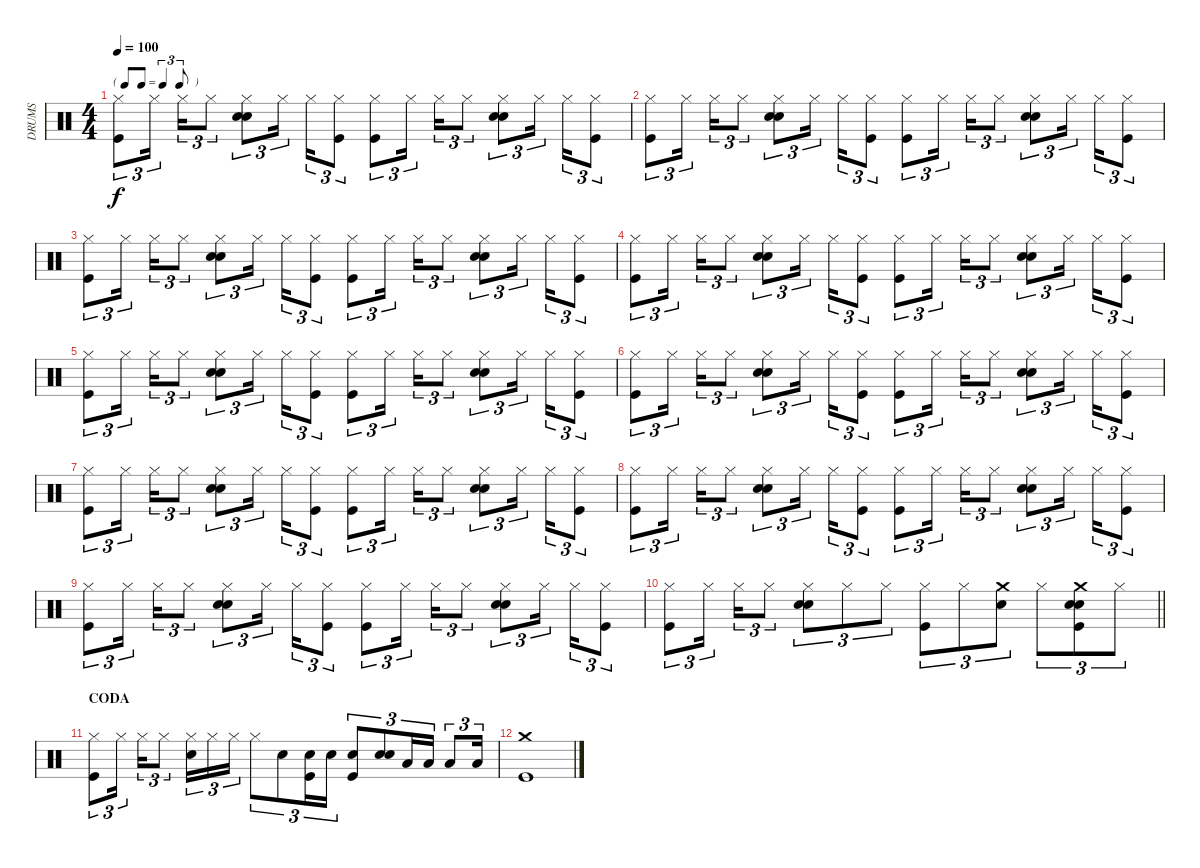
\track ("DRUMS" "DRUMS") {instrument percussion}
\staff {score}
\articulation defaults
\ts (4 4)
\tf triplet8th
\tempo 100
\clef neutral
\ks c
("Kick (hit)" "Hi-Hat (closed)").8{tu (3 2) dy f} "Hi-Hat (closed)".16{tu (3 2) beam splitsecondary} "Hi-Hat (closed)".16{tu (3 2)} "Hi-Hat (closed)".8{tu (3 2)} ("Hand Clap (hit)" "Electric Snare (hit)" "Hi-Hat (closed)").8{tu (3 2)} "Hi-Hat (closed)".16{tu (3 2) beam splitsecondary} "Hi-Hat (closed)".16{tu (3 2)} ("Kick (hit)" "Hi-Hat (closed)").8{tu (3 2)} ("Kick (hit)" "Hi-Hat (closed)").8{tu (3 2)} "Hi-Hat (closed)".16{tu (3 2) beam splitsecondary} "Hi-Hat (closed)".16{tu (3 2)} "Hi-Hat (closed)".8{tu (3 2)} ("Hand Clap (hit)" "Electric Snare (hit)" "Hi-Hat (closed)").8{tu (3 2)} "Hi-Hat (closed)".16{tu (3 2) beam splitsecondary} "Hi-Hat (closed)".16{tu (3 2)} ("Kick (hit)" "Hi-Hat (closed)").8{tu (3 2)} |
("Kick (hit)" "Hi-Hat (closed)").8{tu (3 2)} "Hi-Hat (closed)".16{tu (3 2) beam splitsecondary} "Hi-Hat (closed)".16{tu (3 2)} "Hi-Hat (closed)".8{tu (3 2)} ("Hand Clap (hit)" "Electric Snare (hit)" "Hi-Hat (closed)").8{tu (3 2)} "Hi-Hat (closed)".16{tu (3 2) beam splitsecondary} "Hi-Hat (closed)".16{tu (3 2)} ("Kick (hit)" "Hi-Hat (closed)").8{tu (3 2)} ("Kick (hit)" "Hi-Hat (closed)").8{tu (3 2)} "Hi-Hat (closed)".16{tu (3 2) beam splitsecondary} "Hi-Hat (closed)".16{tu (3 2)} "Hi-Hat (closed)".8{tu (3 2)} ("Hand Clap (hit)" "Electric Snare (hit)" "Hi-Hat (closed)").8{tu (3 2)} "Hi-Hat (closed)".16{tu (3 2) beam splitsecondary} "Hi-Hat (closed)".16{tu (3 2)} ("Kick (hit)" "Hi-Hat (closed)").8{tu (3 2)} |
("Kick (hit)" "Hi-Hat (closed)").8{tu (3 2)} "Hi-Hat (closed)".16{tu (3 2) beam splitsecondary} "Hi-Hat (closed)".16{tu (3 2)} "Hi-Hat (closed)".8{tu (3 2)} ("Hand Clap (hit)" "Electric Snare (hit)" "Hi-Hat (closed)").8{tu (3 2)} "Hi-Hat (closed)".16{tu (3 2) beam splitsecondary} "Hi-Hat (closed)".16{tu (3 2)} ("Kick (hit)" "Hi-Hat (closed)").8{tu (3 2)} ("Kick (hit)" "Hi-Hat (closed)").8{tu (3 2)} "Hi-Hat (closed)".16{tu (3 2) beam splitsecondary} "Hi-Hat (closed)".16{tu (3 2)} "Hi-Hat (closed)".8{tu (3 2)} ("Hand Clap (hit)" "Electric Snare (hit)" "Hi-Hat (closed)").8{tu (3 2)} "Hi-Hat (closed)".16{tu (3 2) beam splitsecondary} "Hi-Hat (closed)".16{tu (3 2)} ("Kick (hit)" "Hi-Hat (closed)").8{tu (3 2)} |
("Kick (hit)" "Hi-Hat (closed)").8{tu (3 2)} "Hi-Hat (closed)".16{tu (3 2) beam splitsecondary} "Hi-Hat (closed)".16{tu (3 2)} "Hi-Hat (closed)".8{tu (3 2)} ("Hand Clap (hit)" "Electric Snare (hit)" "Hi-Hat (closed)").8{tu (3 2)} "Hi-Hat (closed)".16{tu (3 2) beam splitsecondary} "Hi-Hat (closed)".16{tu (3 2)} ("Kick (hit)" "Hi-Hat (closed)").8{tu (3 2)} ("Kick (hit)" "Hi-Hat (closed)").8{tu (3 2)} "Hi-Hat (closed)".16{tu (3 2) beam splitsecondary} "Hi-Hat (closed)".16{tu (3 2)} "Hi-Hat (closed)".8{tu (3 2)} ("Hand Clap (hit)" "Electric Snare (hit)" "Hi-Hat (closed)").8{tu (3 2)} "Hi-Hat (closed)".16{tu (3 2) beam splitsecondary} "Hi-Hat (closed)".16{tu (3 2)} ("Kick (hit)" "Hi-Hat (closed)").8{tu (3 2)} |
("Kick (hit)" "Hi-Hat (closed)").8{tu (3 2)} "Hi-Hat (closed)".16{tu (3 2) beam splitsecondary} "Hi-Hat (closed)".16{tu (3 2)} "Hi-Hat (closed)".8{tu (3 2)} ("Hand Clap (hit)" "Electric Snare (hit)" "Hi-Hat (closed)").8{tu (3 2)} "Hi-Hat (closed)".16{tu (3 2) beam splitsecondary} "Hi-Hat (closed)".16{tu (3 2)} ("Kick (hit)" "Hi-Hat (closed)").8{tu (3 2)} ("Kick (hit)" "Hi-Hat (closed)").8{tu (3 2)} "Hi-Hat (closed)".16{tu (3 2) beam splitsecondary} "Hi-Hat (closed)".16{tu (3 2)} "Hi-Hat (closed)".8{tu (3 2)} ("Hand Clap (hit)" "Electric Snare (hit)" "Hi-Hat (closed)").8{tu (3 2)} "Hi-Hat (closed)".16{tu (3 2) beam splitsecondary} "Hi-Hat (closed)".16{tu (3 2)} ("Kick (hit)" "Hi-Hat (closed)").8{tu (3 2)} |
("Kick (hit)" "Hi-Hat (closed)").8{tu (3 2)} "Hi-Hat (closed)".16{tu (3 2) beam splitsecondary} "Hi-Hat (closed)".16{tu (3 2)} "Hi-Hat (closed)".8{tu (3 2)} ("Hand Clap (hit)" "Electric Snare (hit)" "Hi-Hat (closed)").8{tu (3 2)} "Hi-Hat (closed)".16{tu (3 2) beam splitsecondary} "Hi-Hat (closed)".16{tu (3 2)} ("Kick (hit)" "Hi-Hat (closed)").8{tu (3 2)} ("Kick (hit)" "Hi-Hat (closed)").8{tu (3 2)} "Hi-Hat (closed)".16{tu (3 2) beam splitsecondary} "Hi-Hat (closed)".16{tu (3 2)} "Hi-Hat (closed)".8{tu (3 2)} ("Hand Clap (hit)" "Electric Snare (hit)" "Hi-Hat (closed)").8{tu (3 2)} "Hi-Hat (closed)".16{tu (3 2) beam splitsecondary} "Hi-Hat (closed)".16{tu (3 2)} ("Kick (hit)" "Hi-Hat (closed)").8{tu (3 2)} |
("Kick (hit)" "Hi-Hat (closed)").8{tu (3 2)} "Hi-Hat (closed)".16{tu (3 2) beam splitsecondary} "Hi-Hat (closed)".16{tu (3 2)} "Hi-Hat (closed)".8{tu (3 2)} ("Hand Clap (hit)" "Electric Snare (hit)" "Hi-Hat (closed)").8{tu (3 2)} "Hi-Hat (closed)".16{tu (3 2) beam splitsecondary} "Hi-Hat (closed)".16{tu (3 2)} ("Kick (hit)" "Hi-Hat (closed)").8{tu (3 2)} ("Kick (hit)" "Hi-Hat (closed)").8{tu (3 2)} "Hi-Hat (closed)".16{tu (3 2) beam splitsecondary} "Hi-Hat (closed)".16{tu (3 2)} "Hi-Hat (closed)".8{tu (3 2)} ("Hand Clap (hit)" "Electric Snare (hit)" "Hi-Hat (closed)").8{tu (3 2)} "Hi-Hat (closed)".16{tu (3 2) beam splitsecondary} "Hi-Hat (closed)".16{tu (3 2)} ("Kick (hit)" "Hi-Hat (closed)").8{tu (3 2)} |
("Kick (hit)" "Hi-Hat (closed)").8{tu (3 2)} "Hi-Hat (closed)".16{tu (3 2) beam splitsecondary} "Hi-Hat (closed)".16{tu (3 2)} "Hi-Hat (closed)".8{tu (3 2)} ("Hand Clap (hit)" "Electric Snare (hit)" "Hi-Hat (closed)").8{tu (3 2)} "Hi-Hat (closed)".16{tu (3 2) beam splitsecondary} "Hi-Hat (closed)".16{tu (3 2)} ("Kick (hit)" "Hi-Hat (closed)").8{tu (3 2)} ("Kick (hit)" "Hi-Hat (closed)").8{tu (3 2)} "Hi-Hat (closed)".16{tu (3 2) beam splitsecondary} "Hi-Hat (closed)".16{tu (3 2)} "Hi-Hat (closed)".8{tu (3 2)} ("Hand Clap (hit)" "Electric Snare (hit)" "Hi-Hat (closed)").8{tu (3 2)} "Hi-Hat (closed)".16{tu (3 2) beam splitsecondary} "Hi-Hat (closed)".16{tu (3 2)} ("Kick (hit)" "Hi-Hat (closed)").8{tu (3 2)} |
("Kick (hit)" "Hi-Hat (closed)").8{tu (3 2)} "Hi-Hat (closed)".16{tu (3 2) beam splitsecondary} "Hi-Hat (closed)".16{tu (3 2)} "Hi-Hat (closed)".8{tu (3 2)} ("Hand Clap (hit)" "Electric Snare (hit)" "Hi-Hat (closed)").8{tu (3 2)} "Hi-Hat (closed)".16{tu (3 2) beam splitsecondary} "Hi-Hat (closed)".16{tu (3 2)} ("Kick (hit)" "Hi-Hat (closed)").8{tu (3 2)} ("Kick (hit)" "Hi-Hat (closed)").8{tu (3 2)} "Hi-Hat (closed)".16{tu (3 2) beam splitsecondary} "Hi-Hat (closed)".16{tu (3 2)} "Hi-Hat (closed)".8{tu (3 2)} ("Hand Clap (hit)" "Electric Snare (hit)" "Hi-Hat (closed)").8{tu (3 2)} "Hi-Hat (closed)".16{tu (3 2) beam splitsecondary} "Hi-Hat (closed)".16{tu (3 2)} ("Kick (hit)" "Hi-Hat (closed)").8{tu (3 2)} |
\barLineRight lightlight
("Kick (hit)" "Hi-Hat (closed)").8{tu (3 2)} "Hi-Hat (closed)".16{tu (3 2) beam splitsecondary} "Hi-Hat (closed)".16{tu (3 2)} "Hi-Hat (closed)".8{tu (3 2)} ("Hand Clap (hit)" "Electric Snare (hit)" "Hi-Hat (closed)").8{tu (3 2)} "Hi-Hat (closed)".8{tu (3 2)} "Hi-Hat (closed)".8{tu (3 2)} ("Kick (hit)" "Hi-Hat (closed)").8{tu (3 2)} "Hi-Hat (closed)".8{tu (3 2)} ("Electric Snare (hit)" "Crash medium (hit)").8{tu (3 2)} "Hi-Hat (closed)".8{tu (3 2)} ("Hand Clap (hit)" "Kick (hit)" "Electric Snare (hit)" "Crash medium (hit)").8{tu (3 2)} "Hi-Hat (closed)".8{tu (3 2)} |
\section ("" "CODA")
("Kick (hit)" "Hi-Hat (closed)").8{tu (3 2)} "Hi-Hat (closed)".16{tu (3 2) beam splitsecondary} "Hi-Hat (closed)".16{tu (3 2)} "Hi-Hat (closed)".8{tu (3 2)} ("Electric Snare (hit)" "Hi-Hat (closed)").16{tu (3 2)} "Hi-Hat (closed)".16{tu (3 2)} "Hi-Hat (closed)".16{tu (3 2)} "Hi-Hat (closed)".8{tu (3 2)} "Electric Snare (hit)".8{tu (3 2)} ("Kick (hit)" "Electric Snare (hit)").16{tu (3 2)} "Electric Snare (hit)".16{tu (3 2)} ("Kick (hit)" "Electric Snare (hit)").8{tu (3 2)} ("Hand Clap (hit)" "Electric Snare (hit)").8{tu (3 2)} "Low Tom (hit)".16{tu (3 2)} "Low Tom (hit)".16{tu (3 2)} "Low Floor Tom (hit)".8{tu (3 2)} "Low Floor Tom (hit)".16{tu (3 2)} |
("Kick (hit)" "Crash medium (hit)").1
